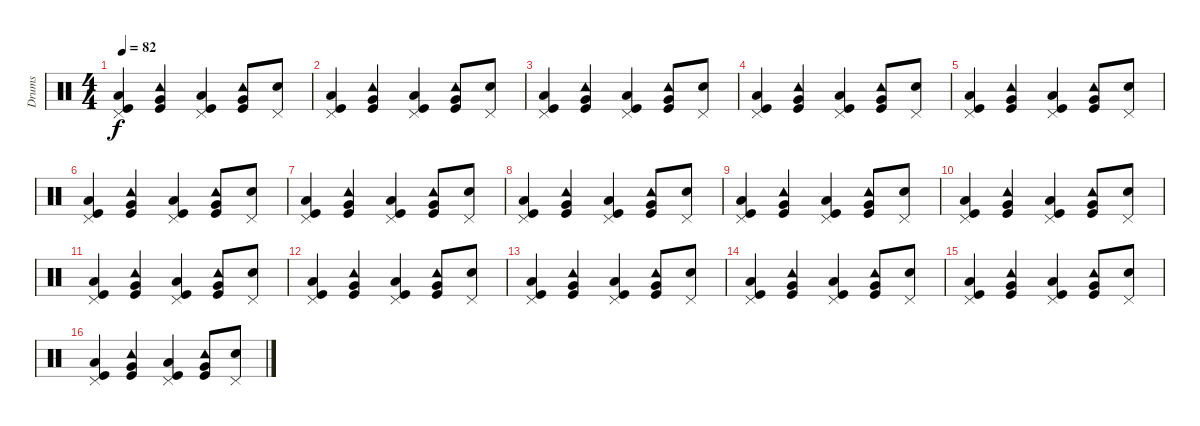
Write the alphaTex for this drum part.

\track ("Drums" "Drums") {instrument percussion}
\staff {score}
\articulation defaults
\ts (4 4)
\tempo 82
\clef neutral
\ks c
("Pedal Hi-Hat (hit)" "Low Tom (hit)" "Kick (hit)").4{dy f} ("Tambourine (hit)" "Very Low Tom (hit)" "Kick (hit)").4 ("Pedal Hi-Hat (hit)" "Low Tom (hit)" "Kick (hit)").4 ("Tambourine (hit)" "Very Low Tom (hit)" "Kick (hit)").8 ("Pedal Hi-Hat (hit)" "Electric Snare (hit)").8 |
("Pedal Hi-Hat (hit)" "Low Tom (hit)" "Kick (hit)").4 ("Tambourine (hit)" "Very Low Tom (hit)" "Kick (hit)").4 ("Pedal Hi-Hat (hit)" "Low Tom (hit)" "Kick (hit)").4 ("Tambourine (hit)" "Very Low Tom (hit)" "Kick (hit)").8 ("Pedal Hi-Hat (hit)" "Electric Snare (hit)").8 |
("Pedal Hi-Hat (hit)" "Low Tom (hit)" "Kick (hit)").4 ("Tambourine (hit)" "Very Low Tom (hit)" "Kick (hit)").4 ("Pedal Hi-Hat (hit)" "Low Tom (hit)" "Kick (hit)").4 ("Tambourine (hit)" "Very Low Tom (hit)" "Kick (hit)").8 ("Pedal Hi-Hat (hit)" "Electric Snare (hit)").8 |
("Pedal Hi-Hat (hit)" "Low Tom (hit)" "Kick (hit)").4 ("Tambourine (hit)" "Very Low Tom (hit)" "Kick (hit)").4 ("Pedal Hi-Hat (hit)" "Low Tom (hit)" "Kick (hit)").4 ("Tambourine (hit)" "Very Low Tom (hit)" "Kick (hit)").8 ("Pedal Hi-Hat (hit)" "Electric Snare (hit)").8 |
("Pedal Hi-Hat (hit)" "Low Tom (hit)" "Kick (hit)").4 ("Tambourine (hit)" "Very Low Tom (hit)" "Kick (hit)").4 ("Pedal Hi-Hat (hit)" "Low Tom (hit)" "Kick (hit)").4 ("Tambourine (hit)" "Very Low Tom (hit)" "Kick (hit)").8 ("Pedal Hi-Hat (hit)" "Electric Snare (hit)").8 |
("Pedal Hi-Hat (hit)" "Low Tom (hit)" "Kick (hit)").4 ("Tambourine (hit)" "Very Low Tom (hit)" "Kick (hit)").4 ("Pedal Hi-Hat (hit)" "Low Tom (hit)" "Kick (hit)").4 ("Tambourine (hit)" "Very Low Tom (hit)" "Kick (hit)").8 ("Pedal Hi-Hat (hit)" "Electric Snare (hit)").8 |
("Pedal Hi-Hat (hit)" "Low Tom (hit)" "Kick (hit)").4 ("Tambourine (hit)" "Very Low Tom (hit)" "Kick (hit)").4 ("Pedal Hi-Hat (hit)" "Low Tom (hit)" "Kick (hit)").4 ("Tambourine (hit)" "Very Low Tom (hit)" "Kick (hit)").8 ("Pedal Hi-Hat (hit)" "Electric Snare (hit)").8 |
("Pedal Hi-Hat (hit)" "Low Tom (hit)" "Kick (hit)").4 ("Tambourine (hit)" "Very Low Tom (hit)" "Kick (hit)").4 ("Pedal Hi-Hat (hit)" "Low Tom (hit)" "Kick (hit)").4 ("Tambourine (hit)" "Very Low Tom (hit)" "Kick (hit)").8 ("Pedal Hi-Hat (hit)" "Electric Snare (hit)").8 |
("Pedal Hi-Hat (hit)" "Low Tom (hit)" "Kick (hit)").4 ("Tambourine (hit)" "Very Low Tom (hit)" "Kick (hit)").4 ("Pedal Hi-Hat (hit)" "Low Tom (hit)" "Kick (hit)").4 ("Tambourine (hit)" "Very Low Tom (hit)" "Kick (hit)").8 ("Pedal Hi-Hat (hit)" "Electric Snare (hit)").8 |
("Pedal Hi-Hat (hit)" "Low Tom (hit)" "Kick (hit)").4 ("Tambourine (hit)" "Very Low Tom (hit)" "Kick (hit)").4 ("Pedal Hi-Hat (hit)" "Low Tom (hit)" "Kick (hit)").4 ("Tambourine (hit)" "Very Low Tom (hit)" "Kick (hit)").8 ("Pedal Hi-Hat (hit)" "Electric Snare (hit)").8 |
("Pedal Hi-Hat (hit)" "Low Tom (hit)" "Kick (hit)").4 ("Tambourine (hit)" "Very Low Tom (hit)" "Kick (hit)").4 ("Pedal Hi-Hat (hit)" "Low Tom (hit)" "Kick (hit)").4 ("Tambourine (hit)" "Very Low Tom (hit)" "Kick (hit)").8 ("Pedal Hi-Hat (hit)" "Electric Snare (hit)").8 |
("Pedal Hi-Hat (hit)" "Low Tom (hit)" "Kick (hit)").4 ("Tambourine (hit)" "Very Low Tom (hit)" "Kick (hit)").4 ("Pedal Hi-Hat (hit)" "Low Tom (hit)" "Kick (hit)").4 ("Tambourine (hit)" "Very Low Tom (hit)" "Kick (hit)").8 ("Pedal Hi-Hat (hit)" "Electric Snare (hit)").8 |
("Pedal Hi-Hat (hit)" "Low Tom (hit)" "Kick (hit)").4 ("Tambourine (hit)" "Very Low Tom (hit)" "Kick (hit)").4 ("Pedal Hi-Hat (hit)" "Low Tom (hit)" "Kick (hit)").4 ("Tambourine (hit)" "Very Low Tom (hit)" "Kick (hit)").8 ("Pedal Hi-Hat (hit)" "Electric Snare (hit)").8 |
("Pedal Hi-Hat (hit)" "Low Tom (hit)" "Kick (hit)").4 ("Tambourine (hit)" "Very Low Tom (hit)" "Kick (hit)").4 ("Pedal Hi-Hat (hit)" "Low Tom (hit)" "Kick (hit)").4 ("Tambourine (hit)" "Very Low Tom (hit)" "Kick (hit)").8 ("Pedal Hi-Hat (hit)" "Electric Snare (hit)").8 |
("Pedal Hi-Hat (hit)" "Low Tom (hit)" "Kick (hit)").4 ("Tambourine (hit)" "Very Low Tom (hit)" "Kick (hit)").4 ("Pedal Hi-Hat (hit)" "Low Tom (hit)" "Kick (hit)").4 ("Tambourine (hit)" "Very Low Tom (hit)" "Kick (hit)").8 ("Pedal Hi-Hat (hit)" "Electric Snare (hit)").8 |
("Pedal Hi-Hat (hit)" "Low Tom (hit)" "Kick (hit)").4 ("Tambourine (hit)" "Very Low Tom (hit)" "Kick (hit)").4 ("Pedal Hi-Hat (hit)" "Low Tom (hit)" "Kick (hit)").4 ("Tambourine (hit)" "Very Low Tom (hit)" "Kick (hit)").8 ("Pedal Hi-Hat (hit)" "Electric Snare (hit)").8
